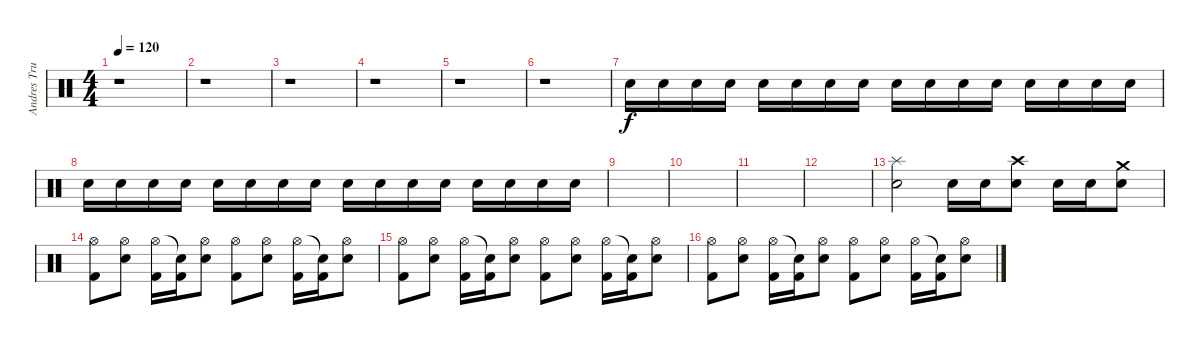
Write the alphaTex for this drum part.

\track ("Andres Trujillo" "Andres Tru") {instrument percussion}
\staff {score}
\articulation defaults
\ts (4 4)
\tempo 120
\clef neutral
\ks c
r.1{dy f} |
r.1 |
r.1 |
r.1 |
r.1 |
r.1 |
"Electric Snare (hit)".16{volume 0} "Electric Snare (hit)".16{volume 16} "Electric Snare (hit)".16 "Electric Snare (hit)".16 "Electric Snare (hit)".16 "Electric Snare (hit)".16 "Electric Snare (hit)".16 "Electric Snare (hit)".16 "Electric Snare (hit)".16 "Electric Snare (hit)".16 "Electric Snare (hit)".16 "Electric Snare (hit)".16 "Electric Snare (hit)".16 "Electric Snare (hit)".16 "Electric Snare (hit)".16 "Electric Snare (hit)".16 |
"Electric Snare (hit)".16 "Electric Snare (hit)".16 "Electric Snare (hit)".16 "Electric Snare (hit)".16 "Electric Snare (hit)".16 "Electric Snare (hit)".16 "Electric Snare (hit)".16 "Electric Snare (hit)".16 "Electric Snare (hit)".16 "Electric Snare (hit)".16 "Electric Snare (hit)".16 "Electric Snare (hit)".16 "Electric Snare (hit)".16 "Electric Snare (hit)".16 "Electric Snare (hit)".16 "Electric Snare (hit)".16 |
|
|
|
|
("Splash (hit)" "Electric Snare (hit)").2 "Electric Snare (hit)".16 "Electric Snare (hit)".16 ("Crash high (hit)" "Electric Snare (hit)").8 "Electric Snare (hit)".16 "Electric Snare (hit)".16 ("Crash medium (hit)" "Electric Snare (hit)").8 |
("Hi-Hat (open)" "Kick (hit) 2").8 ("Hi-Hat (open)" "Electric Snare (hit)").8 ("Hi-Hat (open)" "Kick (hit) 2").16 ("Snare (hit)"{t} "Kick (hit) 2").16 ("Hi-Hat (open)" "Electric Snare (hit)").8 ("Hi-Hat (open)" "Kick (hit) 2").8 ("Hi-Hat (open)" "Electric Snare (hit)").8 ("Hi-Hat (open)" "Kick (hit) 2").16 ("Snare (hit)"{t} "Kick (hit) 2").16 ("Hi-Hat (open)" "Electric Snare (hit)").8 |
("Hi-Hat (open)" "Kick (hit) 2").8 ("Hi-Hat (open)" "Electric Snare (hit)").8 ("Hi-Hat (open)" "Kick (hit) 2").16 ("Snare (hit)"{t} "Kick (hit) 2").16 ("Hi-Hat (open)" "Electric Snare (hit)").8 ("Hi-Hat (open)" "Kick (hit) 2").8 ("Hi-Hat (open)" "Electric Snare (hit)").8 ("Hi-Hat (open)" "Kick (hit) 2").16 ("Snare (hit)"{t} "Kick (hit) 2").16 ("Hi-Hat (open)" "Electric Snare (hit)").8 |
("Hi-Hat (open)" "Kick (hit) 2").8 ("Hi-Hat (open)" "Electric Snare (hit)").8 ("Hi-Hat (open)" "Kick (hit) 2").16 ("Snare (hit)"{t} "Kick (hit) 2").16 ("Hi-Hat (open)" "Electric Snare (hit)").8 ("Hi-Hat (open)" "Kick (hit) 2").8 ("Hi-Hat (open)" "Electric Snare (hit)").8 ("Hi-Hat (open)" "Kick (hit) 2").16 ("Snare (hit)"{t} "Kick (hit) 2").16 ("Hi-Hat (open)" "Electric Snare (hit)").8
